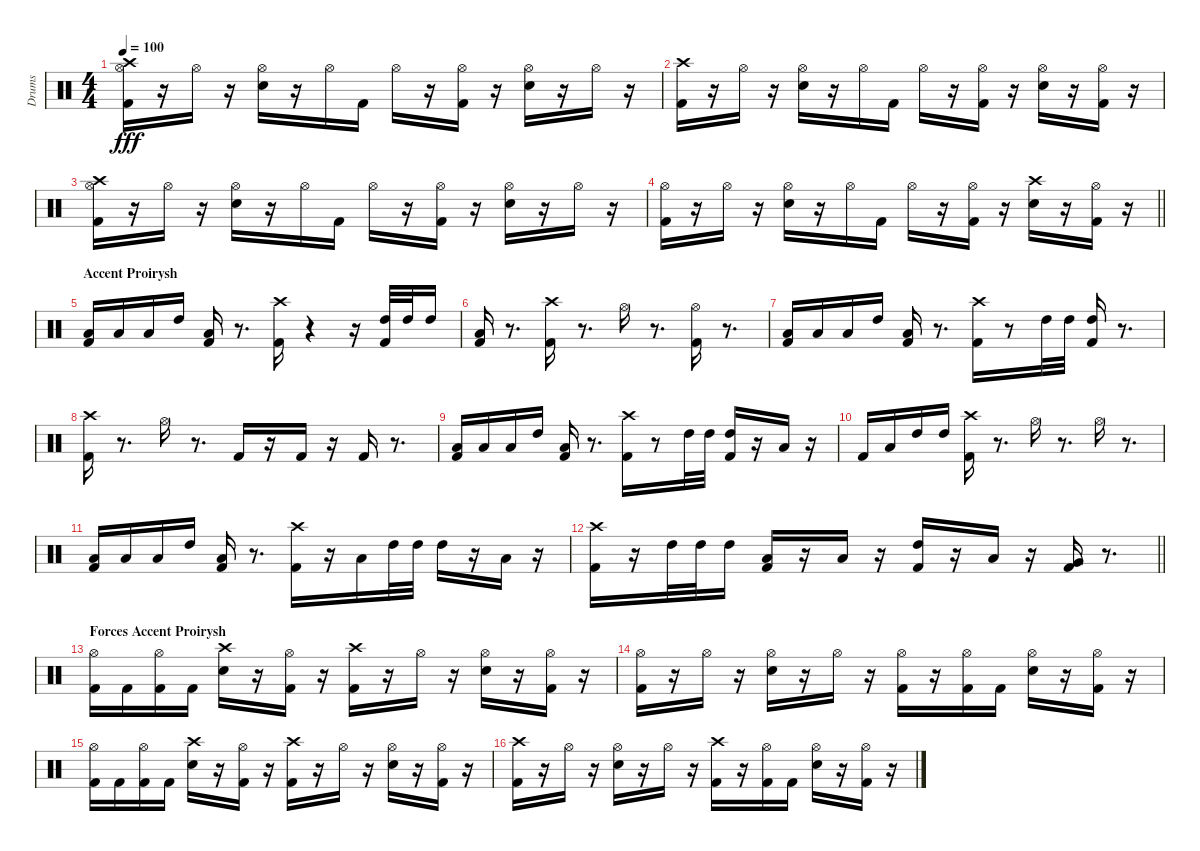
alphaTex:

\track ("Drums" "Drums") {instrument percussion}
\staff {score}
\articulation defaults
\ts (4 4)
\tempo 100
\clef neutral
\ks c
("Hi-Hat (open)" "Kick (hit) 2" "Crash high (hit)").16{dy fff} r.16 "Hi-Hat (open)".16 r.16 ("Hi-Hat (open)" "Snare (hit) 2").16 r.16 "Hi-Hat (open)".16 "Kick (hit) 2".16 "Hi-Hat (open)".16 r.16 ("Kick (hit) 2" "Hi-Hat (open)").16 r.16 ("Hi-Hat (open)" "Snare (hit) 2").16 r.16 "Hi-Hat (open)".16 r.16 |
("Crash high (hit)" "Kick (hit) 2").16 r.16 "Hi-Hat (open)".16 r.16 ("Hi-Hat (open)" "Snare (hit) 2").16 r.16 "Hi-Hat (open)".16 "Kick (hit) 2".16 "Hi-Hat (open)".16 r.16 ("Kick (hit) 2" "Hi-Hat (open)").16 r.16 ("Hi-Hat (open)" "Snare (hit) 2").16 r.16 ("Hi-Hat (open)" "Kick (hit) 2").16 r.16 |
("Kick (hit) 2" "Crash high (hit)" "Hi-Hat (open)").16 r.16 "Hi-Hat (open)".16 r.16 ("Snare (hit) 2" "Hi-Hat (open)").16 r.16 "Hi-Hat (open)".16 "Kick (hit) 2".16 "Hi-Hat (open)".16 r.16 ("Kick (hit) 2" "Hi-Hat (open)").16 r.16 ("Snare (hit) 2" "Hi-Hat (open)").16 r.16 "Hi-Hat (open)".16 r.16 |
\barLineRight lightlight
("Kick (hit) 2" "Hi-Hat (open)").16 r.16 "Hi-Hat (open)".16 r.16 ("Snare (hit) 2" "Hi-Hat (open)").16 r.16 "Hi-Hat (open)".16 "Kick (hit) 2".16 "Hi-Hat (open)".16 r.16 ("Kick (hit) 2" "Hi-Hat (open)").16 r.16 ("Snare (hit) 2" "Crash high (hit)").16 r.16 ("Hi-Hat (open)" "Kick (hit) 2").16 r.16 |
\section ("" "Accent Proirysh")
("Kick (hit) 2" "Low Tom (hit)").16 "Low Tom (hit)".16 "Low Tom (hit)".16 "High Tom (hit)".16 ("Low Tom (hit)" "Kick (hit) 2").16 r.8{d} ("Kick (hit) 2" "Crash high (hit)").16 r.4 r.16 ("Kick (hit) 2" "High Tom (hit)").32 "High Tom (hit)".32 "High Tom (hit)".16 |
("Kick (hit) 2" "Low Tom (hit)").16 r.8{d} ("Kick (hit) 2" "Crash high (hit)").16 r.8{d} "Hi-Hat (open)".16 r.8{d} ("Kick (hit) 2" "Hi-Hat (open)").16 r.8{d} |
("Kick (hit) 2" "Low Tom (hit)").16 "Low Tom (hit)".16 "Low Tom (hit)".16 "High Tom (hit)".16 ("Low Tom (hit)" "Kick (hit) 2").16 r.8{d} ("Kick (hit) 2" "Crash high (hit)").16 r.8 "High Tom (hit)".32 "High Tom (hit)".32 ("High Tom (hit)" "Kick (hit) 2").16 r.8{d} |
("Kick (hit) 2" "Crash high (hit)").16 r.8{d} "Hi-Hat (open)".16 r.8{d} "Kick (hit) 2".16 r.16 "Kick (hit) 2".16 r.16 "Kick (hit) 2".16 r.8{d} |
("Kick (hit) 2" "Low Tom (hit)").16 "Low Tom (hit)".16 "Low Tom (hit)".16 "High Tom (hit)".16 ("Low Tom (hit)" "Kick (hit) 2").16 r.8{d} ("Kick (hit) 2" "Crash high (hit)").16 r.8 "High Tom (hit)".32 "High Tom (hit)".32 ("High Tom (hit)" "Kick (hit) 2").16 r.16 "Low Tom (hit)".16 r.16 |
"Kick (hit) 2".16 "Low Tom (hit)".16 "High Tom (hit)".16 "High Tom (hit)".16 ("Kick (hit) 2" "Crash high (hit)").16 r.8{d} "Hi-Hat (open)".16 r.8{d} "Hi-Hat (open)".16 r.8{d} |
("Kick (hit) 2" "Low Tom (hit)").16 "Low Tom (hit)".16 "Low Tom (hit)".16 "High Tom (hit)".16 ("Low Tom (hit)" "Kick (hit) 2").16 r.8{d} ("Kick (hit) 2" "Crash high (hit)").16 r.16 "Low Tom (hit)".16 "High Tom (hit)".32 "High Tom (hit)".32 "High Tom (hit)".16 r.16 "Low Tom (hit)".16 r.16 |
\barLineRight lightlight
("Kick (hit) 2" "Crash high (hit)").16 r.16 "High Tom (hit)".32 "High Tom (hit)".32 "High Tom (hit)".16 ("Kick (hit) 2" "Low Tom (hit)").16 r.16 "Low Tom (hit)".16 r.16 ("Kick (hit) 2" "High Tom (hit)").16 r.16 "Low Tom (hit)".16 r.16 ("Kick (hit) 2" "Very Low Tom (hit)").16 r.8{d} |
\section ("" "Forces Accent Proirysh")
("Kick (hit) 2" "Hi-Hat (open)").16 "Kick (hit) 2".16 ("Hi-Hat (open)" "Kick (hit) 2").16 "Kick (hit) 2".16 ("Snare (hit) 2" "Crash high (hit)").16 r.16 ("Hi-Hat (open)" "Kick (hit) 2").16 r.16 ("Crash high (hit)" "Kick (hit) 2").16 r.16 "Hi-Hat (open)".16 r.16 ("Hi-Hat (open)" "Snare (hit) 2").16 r.16 ("Hi-Hat (open)" "Kick (hit) 2").16 r.16 |
("Hi-Hat (open)" "Kick (hit) 2").16 r.16 "Hi-Hat (open)".16 r.16 ("Hi-Hat (open)" "Snare (hit) 2").16 r.16 "Hi-Hat (open)".16 r.16 ("Hi-Hat (open)" "Kick (hit) 2").16 r.16 ("Hi-Hat (open)" "Kick (hit) 2").16 "Kick (hit) 2".16 ("Hi-Hat (open)" "Snare (hit) 2").16 r.16 ("Hi-Hat (open)" "Kick (hit) 2").16 r.16 |
("Kick (hit) 2" "Hi-Hat (open)").16 "Kick (hit) 2".16 ("Hi-Hat (open)" "Kick (hit) 2").16 "Kick (hit) 2".16 ("Snare (hit) 2" "Crash high (hit)").16 r.16 ("Hi-Hat (open)" "Kick (hit) 2").16 r.16 ("Crash high (hit)" "Kick (hit) 2").16 r.16 "Hi-Hat (open)".16 r.16 ("Hi-Hat (open)" "Snare (hit) 2").16 r.16 ("Hi-Hat (open)" "Kick (hit) 2").16 r.16 |
("Crash high (hit)" "Kick (hit) 2").16 r.16 "Hi-Hat (open)".16 r.16 ("Hi-Hat (open)" "Snare (hit) 2").16 r.16 "Hi-Hat (open)".16 r.16 ("Crash high (hit)" "Kick (hit) 2").16 r.16 ("Hi-Hat (open)" "Kick (hit) 2").16 "Kick (hit) 2".16 ("Hi-Hat (open)" "Snare (hit) 2").16 r.16 ("Hi-Hat (open)" "Kick (hit) 2").16 r.16
